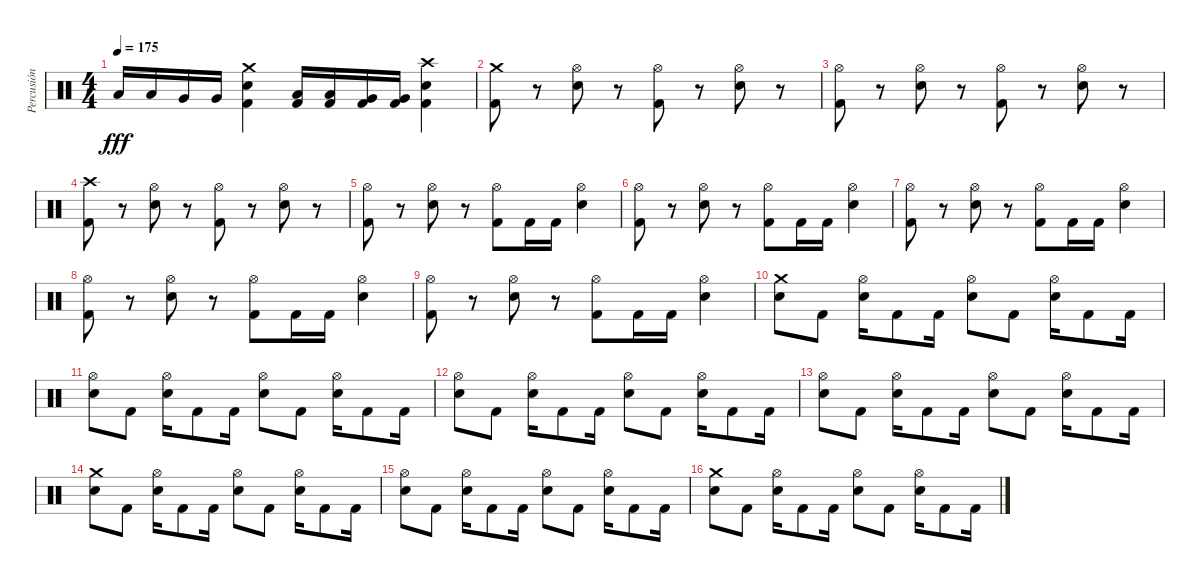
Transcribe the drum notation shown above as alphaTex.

\track ("Percusión" "Percusión") {instrument percussion}
\staff {score}
\articulation defaults
\ts (4 4)
\tempo 175
\clef neutral
\ks c "Low Tom (hit)".16{dy fff} "Low Tom (hit)".16 "Very Low Tom (hit)".16 "Very Low Tom (hit)".16
("Crash medium (hit)" "Electric Snare (hit)" "Kick (hit) 2").4 ("Low Tom (hit)" "Kick (hit) 2").16 ("Low Tom (hit)" "Kick (hit) 2").16 ("Very Low Tom (hit)" "Kick (hit) 2").16 ("Very Low Tom (hit)" "Kick (hit) 2").16 ("Crash high (hit)" "Electric Snare (hit)" "Kick (hit) 2").4 |
("Crash medium (hit)" "Kick (hit) 2").8 r.8 ("Hi-Hat (open)" "Electric Snare (hit)").8 r.8 ("Hi-Hat (open)" "Kick (hit) 2").8 r.8 ("Hi-Hat (open)" "Electric Snare (hit)").8 r.8 |
("Hi-Hat (open)" "Kick (hit) 2").8 r.8 ("Hi-Hat (open)" "Electric Snare (hit)").8 r.8 ("Hi-Hat (open)" "Kick (hit) 2").8 r.8 ("Hi-Hat (open)" "Electric Snare (hit)").8 r.8 |
("Crash high (hit)" "Kick (hit) 2").8 r.8 ("Hi-Hat (open)" "Electric Snare (hit)").8 r.8 ("Hi-Hat (open)" "Kick (hit) 2").8 r.8 ("Hi-Hat (open)" "Electric Snare (hit)").8 r.8 |
("Hi-Hat (open)" "Kick (hit) 2").8 r.8 ("Hi-Hat (open)" "Electric Snare (hit)").8 r.8 ("Hi-Hat (open)" "Kick (hit) 2").8 "Kick (hit) 2".16 "Kick (hit) 2".16 ("Hi-Hat (open)" "Electric Snare (hit)").4 |
("Hi-Hat (open)" "Kick (hit) 2").8 r.8 ("Hi-Hat (open)" "Electric Snare (hit)").8 r.8 ("Hi-Hat (open)" "Kick (hit) 2").8 "Kick (hit) 2".16 "Kick (hit) 2".16 ("Hi-Hat (open)" "Electric Snare (hit)").4 |
("Hi-Hat (open)" "Kick (hit) 2").8 r.8 ("Hi-Hat (open)" "Electric Snare (hit)").8 r.8 ("Hi-Hat (open)" "Kick (hit) 2").8 "Kick (hit) 2".16 "Kick (hit) 2".16 ("Hi-Hat (open)" "Electric Snare (hit)").4 |
("Hi-Hat (open)" "Kick (hit) 2").8 r.8 ("Hi-Hat (open)" "Electric Snare (hit)").8 r.8 ("Hi-Hat (open)" "Kick (hit) 2").8 "Kick (hit) 2".16 "Kick (hit) 2".16 ("Hi-Hat (open)" "Electric Snare (hit)").4 |
("Hi-Hat (open)" "Kick (hit) 2").8 r.8 ("Hi-Hat (open)" "Electric Snare (hit)").8 r.8 ("Hi-Hat (open)" "Kick (hit) 2").8 "Kick (hit) 2".16 "Kick (hit) 2".16 ("Hi-Hat (open)" "Electric Snare (hit)").4 |
("Crash medium (hit)" "Electric Snare (hit)").8 "Kick (hit) 2".8 ("Hi-Hat (open)" "Electric Snare (hit)").16 "Kick (hit) 2".8 "Kick (hit) 2".16 ("Hi-Hat (open)" "Electric Snare (hit)").8 "Kick (hit) 2".8 ("Hi-Hat (open)" "Electric Snare (hit)").16 "Kick (hit) 2".8 "Kick (hit) 2".16 |
("Hi-Hat (open)" "Electric Snare (hit)").8 "Kick (hit) 2".8 ("Hi-Hat (open)" "Electric Snare (hit)").16 "Kick (hit) 2".8 "Kick (hit) 2".16 ("Hi-Hat (open)" "Electric Snare (hit)").8 "Kick (hit) 2".8 ("Hi-Hat (open)" "Electric Snare (hit)").16 "Kick (hit) 2".8 "Kick (hit) 2".16 |
("Hi-Hat (open)" "Electric Snare (hit)").8 "Kick (hit) 2".8 ("Hi-Hat (open)" "Electric Snare (hit)").16 "Kick (hit) 2".8 "Kick (hit) 2".16 ("Hi-Hat (open)" "Electric Snare (hit)").8 "Kick (hit) 2".8 ("Hi-Hat (open)" "Electric Snare (hit)").16 "Kick (hit) 2".8 "Kick (hit) 2".16 |
("Hi-Hat (open)" "Electric Snare (hit)").8 "Kick (hit) 2".8 ("Hi-Hat (open)" "Electric Snare (hit)").16 "Kick (hit) 2".8 "Kick (hit) 2".16 ("Hi-Hat (open)" "Electric Snare (hit)").8 "Kick (hit) 2".8 ("Hi-Hat (open)" "Electric Snare (hit)").16 "Kick (hit) 2".8 "Kick (hit) 2".16 |
("Crash medium (hit)" "Electric Snare (hit)").8 "Kick (hit) 2".8 ("Hi-Hat (open)" "Electric Snare (hit)").16 "Kick (hit) 2".8 "Kick (hit) 2".16 ("Hi-Hat (open)" "Electric Snare (hit)").8 "Kick (hit) 2".8 ("Hi-Hat (open)" "Electric Snare (hit)").16 "Kick (hit) 2".8 "Kick (hit) 2".16 |
("Hi-Hat (open)" "Electric Snare (hit)").8 "Kick (hit) 2".8 ("Hi-Hat (open)" "Electric Snare (hit)").16 "Kick (hit) 2".8 "Kick (hit) 2".16 ("Hi-Hat (open)" "Electric Snare (hit)").8 "Kick (hit) 2".8 ("Hi-Hat (open)" "Electric Snare (hit)").16 "Kick (hit) 2".8 "Kick (hit) 2".16 |
("Crash medium (hit)" "Electric Snare (hit)").8 "Kick (hit) 2".8 ("Hi-Hat (open)" "Electric Snare (hit)").16 "Kick (hit) 2".8 "Kick (hit) 2".16 ("Hi-Hat (open)" "Electric Snare (hit)").8 "Kick (hit) 2".8 ("Hi-Hat (open)" "Electric Snare (hit)").16 "Kick (hit) 2".8 "Kick (hit) 2".16
